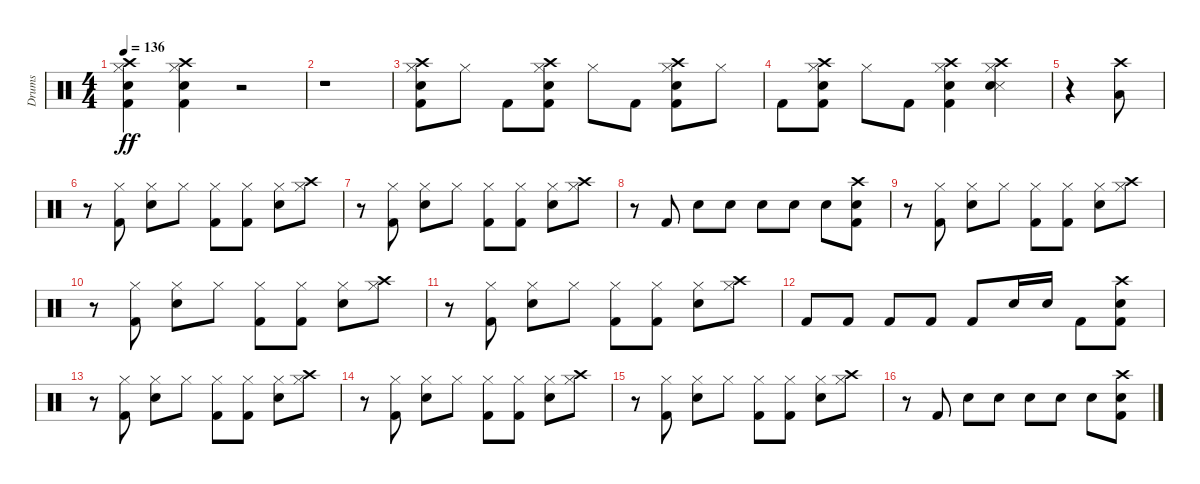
\track ("Drums" "Drums") {instrument percussion}
\staff {score}
\articulation defaults
\ts (4 4)
\tempo 136
\clef neutral
\ks c
("Kick (hit) 2" "Snare (hit) 2" "Hi-Hat (closed)" "Crash high (hit)").4{dy ff} ("Kick (hit) 2" "Snare (hit) 2" "Hi-Hat (closed)" "Crash high (hit)").4 r.2 |
r.1 |
("Kick (hit) 2" "Snare (hit) 2" "Hi-Hat (closed)" "Crash high (hit)").8 "Hi-Hat (closed)".8 "Kick (hit) 2".8 ("Kick (hit) 2" "Snare (hit) 2" "Hi-Hat (closed)" "Crash high (hit)").8 "Hi-Hat (closed)".8 "Kick (hit) 2".8 ("Kick (hit) 2" "Snare (hit) 2" "Hi-Hat (closed)" "Crash high (hit)").8 "Hi-Hat (closed)".8 |
"Kick (hit) 2".8 ("Kick (hit) 2" "Snare (hit) 2" "Hi-Hat (closed)" "Crash high (hit)").8 "Hi-Hat (closed)".8 "Kick (hit) 2".8 ("Kick (hit) 2" "Snare (hit) 2" "Hi-Hat (closed)" "Crash high (hit)").4 ("Snare (side stick) 3" "Snare (hit) 2" "Hi-Hat (closed)" "Crash high (hit)").4 |
r.4 ("Low Floor Tom (hit)" "Crash high (hit)").8 |
r.8 ("Kick (hit) 2" "Hi-Hat (closed)").8 ("Snare (hit) 2" "Hi-Hat (closed)").8 "Hi-Hat (closed)".8 ("Kick (hit) 2" "Hi-Hat (closed)").8 ("Kick (hit) 2" "Hi-Hat (closed)").8 ("Snare (hit) 2" "Hi-Hat (closed)").8 ("Hi-Hat (closed)" "Crash high (hit)").8 |
r.8 ("Kick (hit) 2" "Hi-Hat (closed)").8 ("Snare (hit) 2" "Hi-Hat (closed)").8 "Hi-Hat (closed)".8 ("Kick (hit) 2" "Hi-Hat (closed)").8 ("Kick (hit) 2" "Hi-Hat (closed)").8 ("Snare (hit) 2" "Hi-Hat (closed)").8 ("Hi-Hat (closed)" "Crash high (hit)").8 |
r.8 "Kick (hit) 2".8 "Snare (hit) 2".8 "Snare (hit) 2".8 "Snare (hit) 2".8 "Snare (hit) 2".8 "Snare (hit) 2".8 ("Kick (hit) 2" "Snare (hit) 2" "Crash high (hit)").8 |
r.8 ("Kick (hit) 2" "Hi-Hat (closed)").8 ("Snare (hit) 2" "Hi-Hat (closed)").8 "Hi-Hat (closed)".8 ("Kick (hit) 2" "Hi-Hat (closed)").8 ("Kick (hit) 2" "Hi-Hat (closed)").8 ("Snare (hit) 2" "Hi-Hat (closed)").8 ("Hi-Hat (closed)" "Crash high (hit)").8 |
r.8 ("Kick (hit) 2" "Hi-Hat (closed)").8 ("Snare (hit) 2" "Hi-Hat (closed)").8 "Hi-Hat (closed)".8 ("Kick (hit) 2" "Hi-Hat (closed)").8 ("Kick (hit) 2" "Hi-Hat (closed)").8 ("Snare (hit) 2" "Hi-Hat (closed)").8 ("Hi-Hat (closed)" "Crash high (hit)").8 |
r.8 ("Kick (hit) 2" "Hi-Hat (closed)").8 ("Snare (hit) 2" "Hi-Hat (closed)").8 "Hi-Hat (closed)".8 ("Kick (hit) 2" "Hi-Hat (closed)").8 ("Kick (hit) 2" "Hi-Hat (closed)").8 ("Snare (hit) 2" "Hi-Hat (closed)").8 ("Hi-Hat (closed)" "Crash high (hit)").8 |
"Kick (hit) 2".8 "Kick (hit) 2".8 "Kick (hit) 2".8 "Kick (hit) 2".8 "Kick (hit) 2".8 "Snare (hit) 2".16 "Snare (hit) 2".16 "Kick (hit) 2".8 ("Kick (hit) 2" "Snare (hit) 2" "Crash high (hit)").8 |
r.8 ("Kick (hit) 2" "Hi-Hat (closed)").8 ("Snare (hit) 2" "Hi-Hat (closed)").8 "Hi-Hat (closed)".8 ("Kick (hit) 2" "Hi-Hat (closed)").8 ("Kick (hit) 2" "Hi-Hat (closed)").8 ("Snare (hit) 2" "Hi-Hat (closed)").8 ("Hi-Hat (closed)" "Crash high (hit)").8 |
r.8 ("Kick (hit) 2" "Hi-Hat (closed)").8 ("Snare (hit) 2" "Hi-Hat (closed)").8 "Hi-Hat (closed)".8 ("Kick (hit) 2" "Hi-Hat (closed)").8 ("Kick (hit) 2" "Hi-Hat (closed)").8 ("Snare (hit) 2" "Hi-Hat (closed)").8 ("Hi-Hat (closed)" "Crash high (hit)").8 |
r.8 ("Kick (hit) 2" "Hi-Hat (closed)").8 ("Snare (hit) 2" "Hi-Hat (closed)").8 "Hi-Hat (closed)".8 ("Kick (hit) 2" "Hi-Hat (closed)").8 ("Kick (hit) 2" "Hi-Hat (closed)").8 ("Snare (hit) 2" "Hi-Hat (closed)").8 ("Hi-Hat (closed)" "Crash high (hit)").8 |
r.8 "Kick (hit) 2".8 "Snare (hit) 2".8 "Snare (hit) 2".8 "Snare (hit) 2".8 "Snare (hit) 2".8 "Snare (hit) 2".8 ("Kick (hit) 2" "Snare (hit) 2" "Crash high (hit)").8
